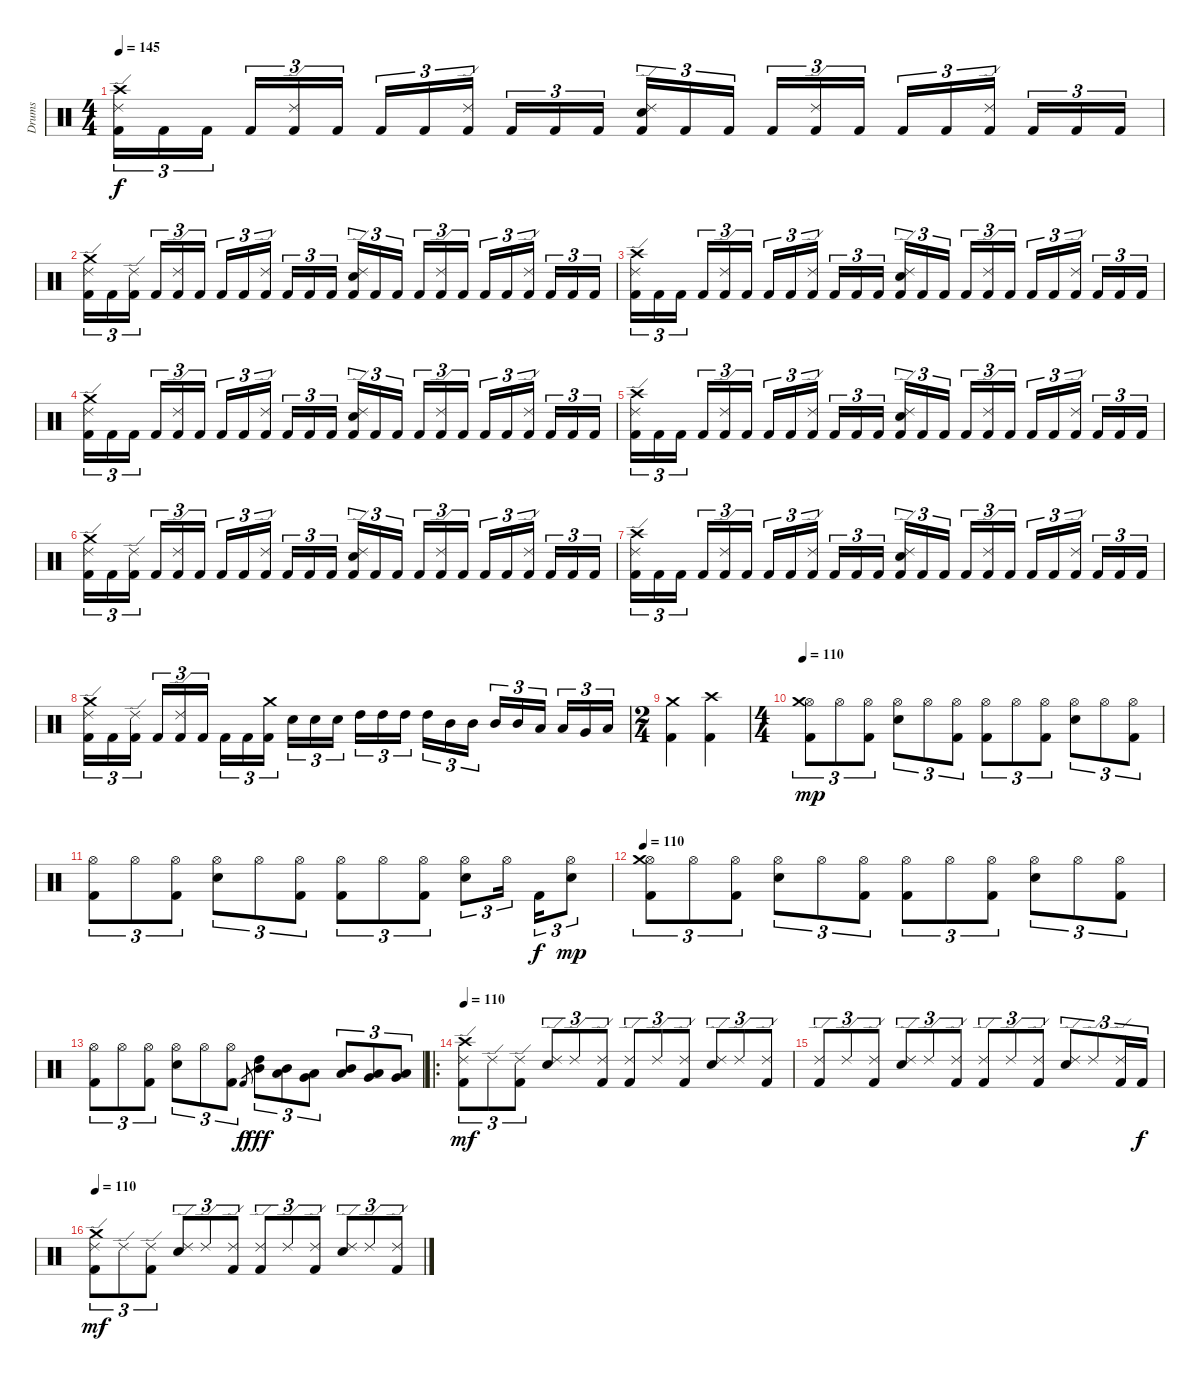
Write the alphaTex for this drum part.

\track ("Drums" "Drums") {instrument percussion}
\staff {score}
\articulation defaults
\ts (4 4)
\tempo 145
\clef neutral
\ks c
("Crash high (hit)" "Ride (edge) 2" "Kick (hit) 2").16{tu (3 2) dy f} "Kick (hit) 2".16{tu (3 2)} "Kick (hit) 2".16{tu (3 2)} "Kick (hit) 2".16{tu (3 2)} ("Ride (edge) 2" "Kick (hit) 2").16{tu (3 2)} "Kick (hit) 2".16{tu (3 2)} "Kick (hit) 2".16{tu (3 2)} "Kick (hit) 2".16{tu (3 2)} ("Ride (edge) 2" "Kick (hit) 2").16{tu (3 2)} "Kick (hit) 2".16{tu (3 2)} "Kick (hit) 2".16{tu (3 2)} "Kick (hit) 2".16{tu (3 2)} ("Ride (edge) 2" "Electric Snare (hit)" "Kick (hit) 2").16{tu (3 2)} "Kick (hit) 2".16{tu (3 2)} "Kick (hit) 2".16{tu (3 2)} "Kick (hit) 2".16{tu (3 2)} ("Ride (edge) 2" "Kick (hit) 2").16{tu (3 2)} "Kick (hit) 2".16{tu (3 2)} "Kick (hit) 2".16{tu (3 2)} "Kick (hit) 2".16{tu (3 2)} ("Ride (edge) 2" "Kick (hit) 2").16{tu (3 2)} "Kick (hit) 2".16{tu (3 2)} "Kick (hit) 2".16{tu (3 2)} "Kick (hit) 2".16{tu (3 2)} |
("Crash medium (hit)" "Ride (edge) 2" "Kick (hit) 2").16{tu (3 2)} "Kick (hit) 2".16{tu (3 2)} ("Ride (edge) 2" "Kick (hit) 2").16{tu (3 2)} "Kick (hit) 2".16{tu (3 2)} ("Ride (edge) 2" "Kick (hit) 2").16{tu (3 2)} "Kick (hit) 2".16{tu (3 2)} "Kick (hit) 2".16{tu (3 2)} "Kick (hit) 2".16{tu (3 2)} ("Ride (edge) 2" "Kick (hit) 2").16{tu (3 2)} "Kick (hit) 2".16{tu (3 2)} "Kick (hit) 2".16{tu (3 2)} "Kick (hit) 2".16{tu (3 2)} ("Ride (edge) 2" "Electric Snare (hit)" "Kick (hit) 2").16{tu (3 2)} "Kick (hit) 2".16{tu (3 2)} "Kick (hit) 2".16{tu (3 2)} "Kick (hit) 2".16{tu (3 2)} ("Ride (edge) 2" "Kick (hit) 2").16{tu (3 2)} "Kick (hit) 2".16{tu (3 2)} "Kick (hit) 2".16{tu (3 2)} "Kick (hit) 2".16{tu (3 2)} ("Ride (edge) 2" "Kick (hit) 2").16{tu (3 2)} "Kick (hit) 2".16{tu (3 2)} "Kick (hit) 2".16{tu (3 2)} "Kick (hit) 2".16{tu (3 2)} |
("Crash high (hit)" "Ride (edge) 2" "Kick (hit) 2").16{tu (3 2)} "Kick (hit) 2".16{tu (3 2)} "Kick (hit) 2".16{tu (3 2)} "Kick (hit) 2".16{tu (3 2)} ("Ride (edge) 2" "Kick (hit) 2").16{tu (3 2)} "Kick (hit) 2".16{tu (3 2)} "Kick (hit) 2".16{tu (3 2)} "Kick (hit) 2".16{tu (3 2)} ("Ride (edge) 2" "Kick (hit) 2").16{tu (3 2)} "Kick (hit) 2".16{tu (3 2)} "Kick (hit) 2".16{tu (3 2)} "Kick (hit) 2".16{tu (3 2)} ("Ride (edge) 2" "Electric Snare (hit)" "Kick (hit) 2").16{tu (3 2)} "Kick (hit) 2".16{tu (3 2)} "Kick (hit) 2".16{tu (3 2)} "Kick (hit) 2".16{tu (3 2)} ("Ride (edge) 2" "Kick (hit) 2").16{tu (3 2)} "Kick (hit) 2".16{tu (3 2)} "Kick (hit) 2".16{tu (3 2)} "Kick (hit) 2".16{tu (3 2)} ("Ride (edge) 2" "Kick (hit) 2").16{tu (3 2)} "Kick (hit) 2".16{tu (3 2)} "Kick (hit) 2".16{tu (3 2)} "Kick (hit) 2".16{tu (3 2)} |
("Crash medium (hit)" "Ride (edge) 2" "Kick (hit) 2").16{tu (3 2)} "Kick (hit) 2".16{tu (3 2)} "Kick (hit) 2".16{tu (3 2)} "Kick (hit) 2".16{tu (3 2)} ("Ride (edge) 2" "Kick (hit) 2").16{tu (3 2)} "Kick (hit) 2".16{tu (3 2)} "Kick (hit) 2".16{tu (3 2)} "Kick (hit) 2".16{tu (3 2)} ("Ride (edge) 2" "Kick (hit) 2").16{tu (3 2)} "Kick (hit) 2".16{tu (3 2)} "Kick (hit) 2".16{tu (3 2)} "Kick (hit) 2".16{tu (3 2)} ("Ride (edge) 2" "Electric Snare (hit)" "Kick (hit) 2").16{tu (3 2)} "Kick (hit) 2".16{tu (3 2)} "Kick (hit) 2".16{tu (3 2)} "Kick (hit) 2".16{tu (3 2)} ("Ride (edge) 2" "Kick (hit) 2").16{tu (3 2)} "Kick (hit) 2".16{tu (3 2)} "Kick (hit) 2".16{tu (3 2)} "Kick (hit) 2".16{tu (3 2)} ("Ride (edge) 2" "Kick (hit) 2").16{tu (3 2)} "Kick (hit) 2".16{tu (3 2)} "Kick (hit) 2".16{tu (3 2)} "Kick (hit) 2".16{tu (3 2)} |
("Crash high (hit)" "Ride (edge) 2" "Kick (hit) 2").16{tu (3 2)} "Kick (hit) 2".16{tu (3 2)} "Kick (hit) 2".16{tu (3 2)} "Kick (hit) 2".16{tu (3 2)} ("Ride (edge) 2" "Kick (hit) 2").16{tu (3 2)} "Kick (hit) 2".16{tu (3 2)} "Kick (hit) 2".16{tu (3 2)} "Kick (hit) 2".16{tu (3 2)} ("Ride (edge) 2" "Kick (hit) 2").16{tu (3 2)} "Kick (hit) 2".16{tu (3 2)} "Kick (hit) 2".16{tu (3 2)} "Kick (hit) 2".16{tu (3 2)} ("Ride (edge) 2" "Electric Snare (hit)" "Kick (hit) 2").16{tu (3 2)} "Kick (hit) 2".16{tu (3 2)} "Kick (hit) 2".16{tu (3 2)} "Kick (hit) 2".16{tu (3 2)} ("Ride (edge) 2" "Kick (hit) 2").16{tu (3 2)} "Kick (hit) 2".16{tu (3 2)} "Kick (hit) 2".16{tu (3 2)} "Kick (hit) 2".16{tu (3 2)} ("Ride (edge) 2" "Kick (hit) 2").16{tu (3 2)} "Kick (hit) 2".16{tu (3 2)} "Kick (hit) 2".16{tu (3 2)} "Kick (hit) 2".16{tu (3 2)} |
("Crash medium (hit)" "Ride (edge) 2" "Kick (hit) 2").16{tu (3 2)} "Kick (hit) 2".16{tu (3 2)} ("Ride (edge) 2" "Kick (hit) 2").16{tu (3 2)} "Kick (hit) 2".16{tu (3 2)} ("Ride (edge) 2" "Kick (hit) 2").16{tu (3 2)} "Kick (hit) 2".16{tu (3 2)} "Kick (hit) 2".16{tu (3 2)} "Kick (hit) 2".16{tu (3 2)} ("Ride (edge) 2" "Kick (hit) 2").16{tu (3 2)} "Kick (hit) 2".16{tu (3 2)} "Kick (hit) 2".16{tu (3 2)} "Kick (hit) 2".16{tu (3 2)} ("Ride (edge) 2" "Electric Snare (hit)" "Kick (hit) 2").16{tu (3 2)} "Kick (hit) 2".16{tu (3 2)} "Kick (hit) 2".16{tu (3 2)} "Kick (hit) 2".16{tu (3 2)} ("Ride (edge) 2" "Kick (hit) 2").16{tu (3 2)} "Kick (hit) 2".16{tu (3 2)} "Kick (hit) 2".16{tu (3 2)} "Kick (hit) 2".16{tu (3 2)} ("Ride (edge) 2" "Kick (hit) 2").16{tu (3 2)} "Kick (hit) 2".16{tu (3 2)} "Kick (hit) 2".16{tu (3 2)} "Kick (hit) 2".16{tu (3 2)} |
("Crash high (hit)" "Ride (edge) 2" "Kick (hit) 2").16{tu (3 2)} "Kick (hit) 2".16{tu (3 2)} "Kick (hit) 2".16{tu (3 2)} "Kick (hit) 2".16{tu (3 2)} ("Ride (edge) 2" "Kick (hit) 2").16{tu (3 2)} "Kick (hit) 2".16{tu (3 2)} "Kick (hit) 2".16{tu (3 2)} "Kick (hit) 2".16{tu (3 2)} ("Ride (edge) 2" "Kick (hit) 2").16{tu (3 2)} "Kick (hit) 2".16{tu (3 2)} "Kick (hit) 2".16{tu (3 2)} "Kick (hit) 2".16{tu (3 2)} ("Ride (edge) 2" "Electric Snare (hit)" "Kick (hit) 2").16{tu (3 2)} "Kick (hit) 2".16{tu (3 2)} "Kick (hit) 2".16{tu (3 2)} "Kick (hit) 2".16{tu (3 2)} ("Ride (edge) 2" "Kick (hit) 2").16{tu (3 2)} "Kick (hit) 2".16{tu (3 2)} "Kick (hit) 2".16{tu (3 2)} "Kick (hit) 2".16{tu (3 2)} ("Ride (edge) 2" "Kick (hit) 2").16{tu (3 2)} "Kick (hit) 2".16{tu (3 2)} "Kick (hit) 2".16{tu (3 2)} "Kick (hit) 2".16{tu (3 2)} |
("Crash medium (hit)" "Ride (edge) 2" "Kick (hit) 2").16{tu (3 2)} "Kick (hit) 2".16{tu (3 2)} ("Ride (edge) 2" "Kick (hit) 2").16{tu (3 2)} "Kick (hit) 2".16{tu (3 2)} ("Ride (edge) 2" "Kick (hit) 2").16{tu (3 2)} "Kick (hit) 2".16{tu (3 2)} "Kick (hit) 2".16{tu (3 2)} "Kick (hit) 2".16{tu (3 2)} ("Crash medium (hit)" "Kick (hit) 2").16{tu (3 2)} "Electric Snare (hit)".16{tu (3 2)} "Electric Snare (hit)".16{tu (3 2)} "Electric Snare (hit)".16{tu (3 2)} "High Tom (hit)".16{tu (3 2)} "High Tom (hit)".16{tu (3 2)} "High Tom (hit)".16{tu (3 2)} "High Tom (hit)".16{tu (3 2)} "Mid Tom (hit)".16{tu (3 2)} "Mid Tom (hit)".16{tu (3 2)} "Mid Tom (hit)".16{tu (3 2)} "Mid Tom (hit)".16{tu (3 2)} "Low Tom (hit)".16{tu (3 2)} "Low Tom (hit)".16{tu (3 2)} "Very Low Tom (hit)".16{tu (3 2)} "Low Floor Tom (hit)".16{tu (3 2)} |
\ts (2 4)
("Crash medium (hit)" "Kick (hit) 2").4 ("Crash high (hit)" "Kick (hit) 2").4 |
\ts (4 4)
\tempo 110
("Hi-Hat (open)" "Crash medium (hit)" "Kick (hit) 2").8{tu (3 2) dy mp} "Hi-Hat (open)".8{tu (3 2)} ("Hi-Hat (open)" "Kick (hit) 2").8{tu (3 2)} ("Hi-Hat (open)" "Electric Snare (hit)").8{tu (3 2)} "Hi-Hat (open)".8{tu (3 2)} ("Hi-Hat (open)" "Kick (hit) 2").8{tu (3 2)} ("Hi-Hat (open)" "Kick (hit) 2").8{tu (3 2)} "Hi-Hat (open)".8{tu (3 2)} ("Hi-Hat (open)" "Kick (hit) 2").8{tu (3 2)} ("Hi-Hat (open)" "Electric Snare (hit)").8{tu (3 2)} "Hi-Hat (open)".8{tu (3 2)} ("Hi-Hat (open)" "Kick (hit) 2").8{tu (3 2)} |
("Hi-Hat (open)" "Kick (hit) 2").8{tu (3 2)} "Hi-Hat (open)".8{tu (3 2)} ("Hi-Hat (open)" "Kick (hit) 2").8{tu (3 2)} ("Hi-Hat (open)" "Electric Snare (hit)").8{tu (3 2)} "Hi-Hat (open)".8{tu (3 2)} ("Hi-Hat (open)" "Kick (hit) 2").8{tu (3 2)} ("Hi-Hat (open)" "Kick (hit) 2").8{tu (3 2)} "Hi-Hat (open)".8{tu (3 2)} ("Hi-Hat (open)" "Kick (hit) 2").8{tu (3 2)} ("Hi-Hat (open)" "Electric Snare (hit)").8{tu (3 2)} "Hi-Hat (open)".16{tu (3 2)} "Kick (hit) 2".16{tu (3 2) dy f} ("Hi-Hat (open)" "Electric Snare (hit)").8{tu (3 2) dy mp} |
\tempo 110
("Hi-Hat (open)" "Crash medium (hit)" "Kick (hit) 2").8{tu (3 2)} "Hi-Hat (open)".8{tu (3 2)} ("Hi-Hat (open)" "Kick (hit) 2").8{tu (3 2)} ("Hi-Hat (open)" "Electric Snare (hit)").8{tu (3 2)} "Hi-Hat (open)".8{tu (3 2)} ("Hi-Hat (open)" "Kick (hit) 2").8{tu (3 2)} ("Hi-Hat (open)" "Kick (hit) 2").8{tu (3 2)} "Hi-Hat (open)".8{tu (3 2)} ("Hi-Hat (open)" "Kick (hit) 2").8{tu (3 2)} ("Hi-Hat (open)" "Electric Snare (hit)").8{tu (3 2)} "Hi-Hat (open)".8{tu (3 2)} ("Hi-Hat (open)" "Kick (hit) 2").8{tu (3 2)} |
("Hi-Hat (open)" "Kick (hit) 2").8{tu (3 2)} "Hi-Hat (open)".8{tu (3 2)} ("Hi-Hat (open)" "Kick (hit) 2").8{tu (3 2)} ("Hi-Hat (open)" "Electric Snare (hit)").8{tu (3 2)} "Hi-Hat (open)".8{tu (3 2)} ("Hi-Hat (open)" "Kick (hit) 2").8{tu (3 2)} "Kick (hit) 2".8{gr dy f} ("Mid Tom (hit)" "High Tom (hit)").8{tu (3 2) dy fff} ("Low Tom (hit)" "Mid Tom (hit)").8{tu (3 2)} ("Very Low Tom (hit)" "Low Tom (hit)").8{tu (3 2)} ("Low Tom (hit)" "Mid Tom (hit)").8{tu (3 2)} ("Very Low Tom (hit)" "Low Tom (hit)").8{tu (3 2)} ("Low Floor Tom (hit)" "Very Low Tom (hit)").8{tu (3 2)} |
\ro
\tempo 110
("Ride (edge) 2" "Crash high (hit)" "Kick (hit) 2").8{tu (3 2) dy mf} "Ride (edge) 2".8{tu (3 2)} ("Ride (edge) 2" "Kick (hit) 2").8{tu (3 2)} ("Ride (edge) 2" "Electric Snare (hit)").8{tu (3 2)} "Ride (edge) 2".8{tu (3 2)} ("Ride (edge) 2" "Kick (hit) 2").8{tu (3 2)} ("Ride (edge) 2" "Kick (hit) 2").8{tu (3 2)} "Ride (edge) 2".8{tu (3 2)} ("Ride (edge) 2" "Kick (hit) 2").8{tu (3 2)} ("Ride (edge) 2" "Electric Snare (hit)").8{tu (3 2)} "Ride (edge) 2".8{tu (3 2)} ("Ride (edge) 2" "Kick (hit) 2").8{tu (3 2)} |
("Ride (edge) 2" "Kick (hit) 2").8{tu (3 2)} "Ride (edge) 2".8{tu (3 2)} ("Ride (edge) 2" "Kick (hit) 2").8{tu (3 2)} ("Ride (edge) 2" "Electric Snare (hit)").8{tu (3 2)} "Ride (edge) 2".8{tu (3 2)} ("Ride (edge) 2" "Kick (hit) 2").8{tu (3 2)} ("Ride (edge) 2" "Kick (hit) 2").8{tu (3 2)} "Ride (edge) 2".8{tu (3 2)} ("Ride (edge) 2" "Kick (hit) 2").8{tu (3 2)} ("Ride (edge) 2" "Electric Snare (hit)").8{tu (3 2)} "Ride (edge) 2".8{tu (3 2)} ("Ride (edge) 2" "Kick (hit) 2").16{tu (3 2)} "Kick (hit) 2".16{tu (3 2) dy f} |
\tempo 110
("Ride (edge) 2" "Crash medium (hit)" "Kick (hit) 2").8{tu (3 2) dy mf} "Ride (edge) 2".8{tu (3 2)} ("Ride (edge) 2" "Kick (hit) 2").8{tu (3 2)} ("Ride (edge) 2" "Electric Snare (hit)").8{tu (3 2)} "Ride (edge) 2".8{tu (3 2)} ("Ride (edge) 2" "Kick (hit) 2").8{tu (3 2)} ("Ride (edge) 2" "Kick (hit) 2").8{tu (3 2)} "Ride (edge) 2".8{tu (3 2)} ("Ride (edge) 2" "Kick (hit) 2").8{tu (3 2)} ("Ride (edge) 2" "Electric Snare (hit)").8{tu (3 2)} "Ride (edge) 2".8{tu (3 2)} ("Ride (edge) 2" "Kick (hit) 2").8{tu (3 2)}
